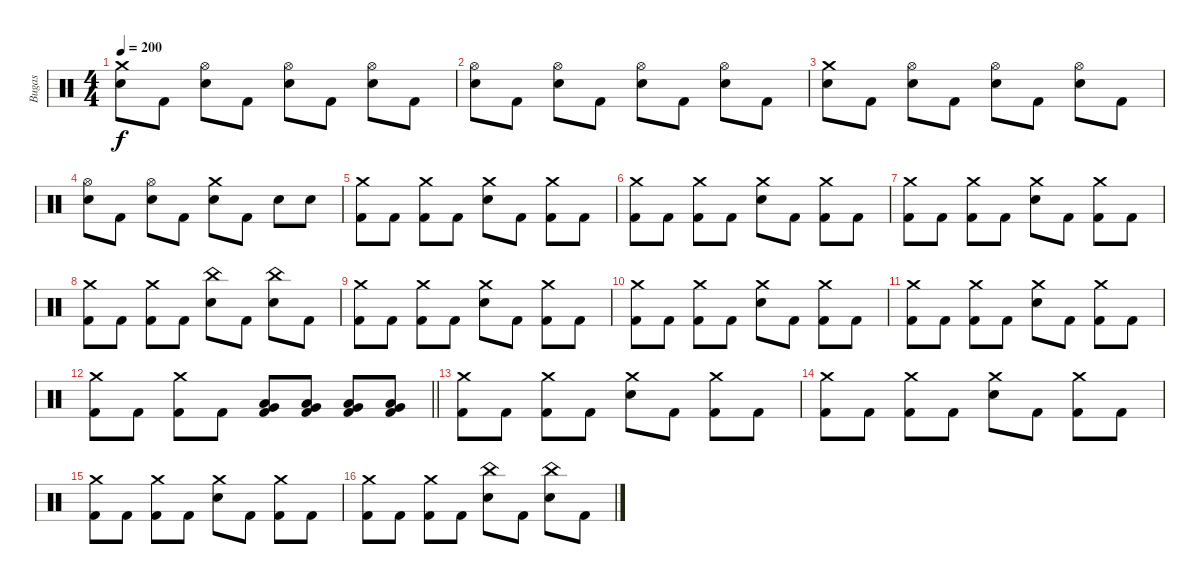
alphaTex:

\track ("Bugas" "Bugas") {instrument percussion}
\staff {score}
\articulation defaults
\ts (4 4)
\tempo 200
\clef neutral
\ks c
("Crash medium (hit)" "Electric Snare (hit)").8{dy f} "Kick (hit) 2".8 ("Hi-Hat (open)" "Electric Snare (hit)").8 "Kick (hit) 2".8 ("Hi-Hat (open)" "Electric Snare (hit)").8 "Kick (hit) 2".8 ("Hi-Hat (open)" "Electric Snare (hit)").8 "Kick (hit) 2".8 |
("Hi-Hat (open)" "Electric Snare (hit)").8 "Kick (hit) 2".8 ("Hi-Hat (open)" "Electric Snare (hit)").8 "Kick (hit) 2".8 ("Hi-Hat (open)" "Electric Snare (hit)").8 "Kick (hit) 2".8 ("Hi-Hat (open)" "Electric Snare (hit)").8 "Kick (hit) 2".8 |
("Crash medium (hit)" "Electric Snare (hit)").8 "Kick (hit) 2".8 ("Hi-Hat (open)" "Electric Snare (hit)").8 "Kick (hit) 2".8 ("Hi-Hat (open)" "Electric Snare (hit)").8 "Kick (hit) 2".8 ("Hi-Hat (open)" "Electric Snare (hit)").8 "Kick (hit) 2".8 |
("Hi-Hat (open)" "Electric Snare (hit)").8 "Kick (hit) 2".8 ("Hi-Hat (open)" "Electric Snare (hit)").8 "Kick (hit) 2".8 ("Crash medium (hit)" "Electric Snare (hit)").8 "Kick (hit) 2".8 "Electric Snare (hit)".8 "Electric Snare (hit)".8 |
("Crash medium (hit)" "Kick (hit) 2").8 "Kick (hit) 2".8 ("Crash medium (hit)" "Kick (hit) 2").8 "Kick (hit) 2".8 ("Crash medium (hit)" "Electric Snare (hit)").8 "Kick (hit) 2".8 ("Crash medium (hit)" "Kick (hit) 2").8 "Kick (hit) 2".8 |
("Crash medium (hit)" "Kick (hit) 2").8 "Kick (hit) 2".8 ("Crash medium (hit)" "Kick (hit) 2").8 "Kick (hit) 2".8 ("Crash medium (hit)" "Electric Snare (hit)").8 "Kick (hit) 2".8 ("Crash medium (hit)" "Kick (hit) 2").8 "Kick (hit) 2".8 |
("Crash medium (hit)" "Kick (hit) 2").8 "Kick (hit) 2".8 ("Crash medium (hit)" "Kick (hit) 2").8 "Kick (hit) 2".8 ("Crash medium (hit)" "Electric Snare (hit)").8 "Kick (hit) 2".8 ("Crash medium (hit)" "Kick (hit) 2").8 "Kick (hit) 2".8 |
("Crash medium (hit)" "Kick (hit) 2").8 "Kick (hit) 2".8 ("Crash medium (hit)" "Kick (hit) 2").8 "Kick (hit) 2".8 ("China (hit)" "Electric Snare (hit)").8 "Kick (hit) 2".8 ("China (hit)" "Electric Snare (hit)").8 "Kick (hit) 2".8 |
("Crash medium (hit)" "Kick (hit) 2").8 "Kick (hit) 2".8 ("Crash medium (hit)" "Kick (hit) 2").8 "Kick (hit) 2".8 ("Crash medium (hit)" "Electric Snare (hit)").8 "Kick (hit) 2".8 ("Crash medium (hit)" "Kick (hit) 2").8 "Kick (hit) 2".8 |
("Crash medium (hit)" "Kick (hit) 2").8 "Kick (hit) 2".8 ("Crash medium (hit)" "Kick (hit) 2").8 "Kick (hit) 2".8 ("Crash medium (hit)" "Electric Snare (hit)").8 "Kick (hit) 2".8 ("Crash medium (hit)" "Kick (hit) 2").8 "Kick (hit) 2".8 |
("Crash medium (hit)" "Kick (hit) 2").8 "Kick (hit) 2".8 ("Crash medium (hit)" "Kick (hit) 2").8 "Kick (hit) 2".8 ("Crash medium (hit)" "Electric Snare (hit)").8 "Kick (hit) 2".8 ("Crash medium (hit)" "Kick (hit) 2").8 "Kick (hit) 2".8 |
\barLineRight lightlight
("Crash medium (hit)" "Kick (hit) 2").8 "Kick (hit) 2".8 ("Crash medium (hit)" "Kick (hit) 2").8 "Kick (hit) 2".8 ("Very Low Tom (hit)" "Low Tom (hit)" "Kick (hit) 2").8 ("Very Low Tom (hit)" "Low Tom (hit)" "Kick (hit) 2").8 ("Very Low Tom (hit)" "Low Tom (hit)" "Kick (hit) 2").8 ("Very Low Tom (hit)" "Low Tom (hit)" "Kick (hit) 2").8 |
("Crash medium (hit)" "Kick (hit) 2").8 "Kick (hit) 2".8 ("Crash medium (hit)" "Kick (hit) 2").8 "Kick (hit) 2".8 ("Crash medium (hit)" "Electric Snare (hit)").8 "Kick (hit) 2".8 ("Crash medium (hit)" "Kick (hit) 2").8 "Kick (hit) 2".8 |
("Crash medium (hit)" "Kick (hit) 2").8 "Kick (hit) 2".8 ("Crash medium (hit)" "Kick (hit) 2").8 "Kick (hit) 2".8 ("Crash medium (hit)" "Electric Snare (hit)").8 "Kick (hit) 2".8 ("Crash medium (hit)" "Kick (hit) 2").8 "Kick (hit) 2".8 |
("Crash medium (hit)" "Kick (hit) 2").8 "Kick (hit) 2".8 ("Crash medium (hit)" "Kick (hit) 2").8 "Kick (hit) 2".8 ("Crash medium (hit)" "Electric Snare (hit)").8 "Kick (hit) 2".8 ("Crash medium (hit)" "Kick (hit) 2").8 "Kick (hit) 2".8 |
("Crash medium (hit)" "Kick (hit) 2").8 "Kick (hit) 2".8 ("Crash medium (hit)" "Kick (hit) 2").8 "Kick (hit) 2".8 ("China (hit)" "Electric Snare (hit)").8 "Kick (hit) 2".8 ("China (hit)" "Electric Snare (hit)").8 "Kick (hit) 2".8
